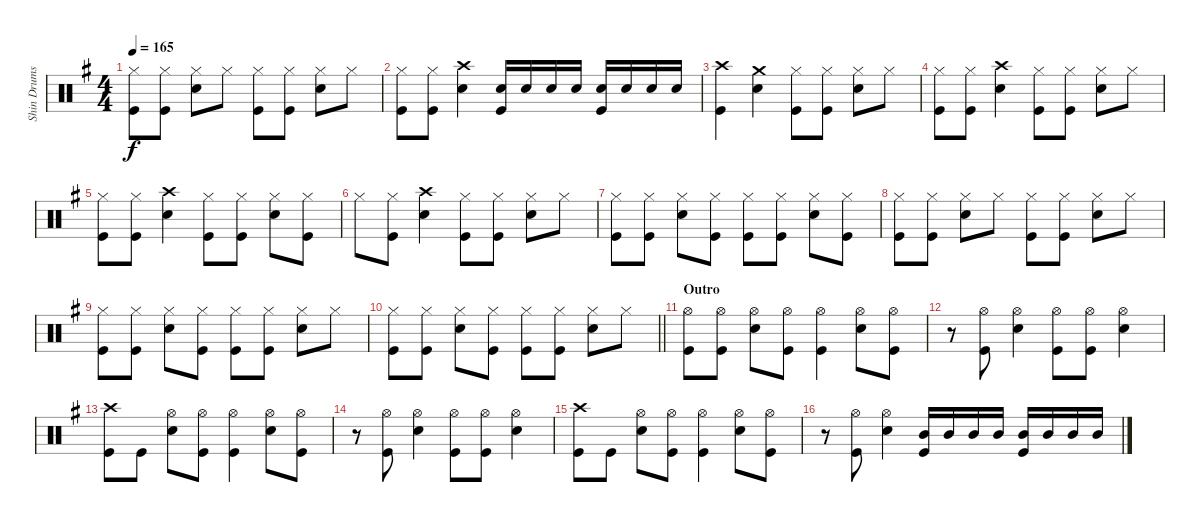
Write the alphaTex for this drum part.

\track ("Shin Drums" "Shin Drums") {instrument percussion}
\staff {score}
\articulation defaults
\ts (4 4)
\tempo 165
\clef neutral
\ks g
("Hi-Hat (closed)" "Kick (hit)").8{dy f} ("Hi-Hat (closed)" "Kick (hit)").8 ("Hi-Hat (closed)" "Snare (hit) 2").8 "Hi-Hat (closed)".8 ("Hi-Hat (closed)" "Kick (hit)").8 ("Hi-Hat (closed)" "Kick (hit)").8 ("Hi-Hat (closed)" "Snare (hit) 2").8 "Hi-Hat (closed)".8 |
("Hi-Hat (closed)" "Kick (hit)").8 ("Hi-Hat (closed)" "Kick (hit)").8 ("Crash high (hit)" "Snare (hit) 2").4 ("Snare (hit) 2" "Kick (hit)").16 "Snare (hit) 2".16 "Snare (hit) 2".16 "Snare (hit) 2".16 ("Snare (hit) 2" "Kick (hit)").16 "Snare (hit) 2".16 "Snare (hit) 2".16 "Snare (hit) 2".16 |
("Crash high (hit)" "Kick (hit)").4 ("Crash medium (hit)" "Snare (hit) 2").4 ("Hi-Hat (closed)" "Kick (hit)").8 ("Hi-Hat (closed)" "Kick (hit)").8 ("Hi-Hat (closed)" "Snare (hit) 2").8 "Hi-Hat (closed)".8 |
("Hi-Hat (closed)" "Kick (hit)").8 ("Hi-Hat (closed)" "Kick (hit)").8 ("Crash high (hit)" "Snare (hit) 2").4 ("Hi-Hat (closed)" "Kick (hit)").8 ("Hi-Hat (closed)" "Kick (hit)").8 ("Hi-Hat (closed)" "Snare (hit) 2").8 "Hi-Hat (closed)".8 |
("Hi-Hat (closed)" "Kick (hit)").8 ("Hi-Hat (closed)" "Kick (hit)").8 ("Crash high (hit)" "Snare (hit) 2").4 ("Hi-Hat (closed)" "Kick (hit)").8 ("Hi-Hat (closed)" "Kick (hit)").8 ("Hi-Hat (closed)" "Snare (hit) 2").8 ("Hi-Hat (closed)" "Kick (hit)").8 |
"Hi-Hat (closed)".8 ("Hi-Hat (closed)" "Kick (hit)").8 ("Crash high (hit)" "Snare (hit) 2").4 ("Hi-Hat (closed)" "Kick (hit)").8 ("Hi-Hat (closed)" "Kick (hit)").8 ("Hi-Hat (closed)" "Snare (hit) 2").8 "Hi-Hat (closed)".8 |
("Hi-Hat (closed)" "Kick (hit)").8 ("Hi-Hat (closed)" "Kick (hit)").8 ("Hi-Hat (closed)" "Snare (hit) 2").8 ("Hi-Hat (closed)" "Kick (hit)").8 ("Hi-Hat (closed)" "Kick (hit)").8 ("Hi-Hat (closed)" "Kick (hit)").8 ("Hi-Hat (closed)" "Snare (hit) 2").8 ("Hi-Hat (closed)" "Kick (hit)").8 |
("Hi-Hat (closed)" "Kick (hit)").8 ("Hi-Hat (closed)" "Kick (hit)").8 ("Hi-Hat (closed)" "Snare (hit) 2").8 "Hi-Hat (closed)".8 ("Hi-Hat (closed)" "Kick (hit)").8 ("Hi-Hat (closed)" "Kick (hit)").8 ("Hi-Hat (closed)" "Snare (hit) 2").8 "Hi-Hat (closed)".8 |
("Hi-Hat (closed)" "Kick (hit)").8 ("Hi-Hat (closed)" "Kick (hit)").8 ("Hi-Hat (closed)" "Snare (hit) 2").8 ("Hi-Hat (closed)" "Kick (hit)").8 ("Hi-Hat (closed)" "Kick (hit)").8 ("Hi-Hat (closed)" "Kick (hit)").8 ("Hi-Hat (closed)" "Snare (hit) 2").8 "Hi-Hat (closed)".8 |
\barLineRight lightlight
("Hi-Hat (closed)" "Kick (hit)").8 ("Hi-Hat (closed)" "Kick (hit)").8 ("Hi-Hat (closed)" "Snare (hit) 2").8 ("Hi-Hat (closed)" "Kick (hit)").8 ("Hi-Hat (closed)" "Kick (hit)").8 ("Hi-Hat (closed)" "Kick (hit)").8 ("Hi-Hat (closed)" "Snare (hit) 2").8 "Hi-Hat (closed)".8 |
\section ("" "Outro")
("Hi-Hat (open)" "Kick (hit)").8 ("Hi-Hat (open)" "Kick (hit)").8 ("Hi-Hat (open)" "Snare (hit) 2").8 ("Hi-Hat (open)" "Kick (hit)").8 ("Hi-Hat (open)" "Kick (hit)").4 ("Hi-Hat (open)" "Snare (hit) 2").8 ("Hi-Hat (open)" "Kick (hit)").8 |
r.8 ("Hi-Hat (open)" "Kick (hit)").8 ("Hi-Hat (open)" "Snare (hit) 2").4 ("Hi-Hat (open)" "Kick (hit)").8 ("Hi-Hat (open)" "Kick (hit)").8 ("Hi-Hat (open)" "Snare (hit) 2").4 |
("Crash high (hit)" "Kick (hit)").8 "Kick (hit)".8 ("Hi-Hat (open)" "Snare (hit) 2").8 ("Hi-Hat (open)" "Kick (hit)").8 ("Hi-Hat (open)" "Kick (hit)").4 ("Hi-Hat (open)" "Snare (hit) 2").8 ("Hi-Hat (open)" "Kick (hit)").8 |
r.8 ("Hi-Hat (open)" "Kick (hit)").8 ("Hi-Hat (open)" "Snare (hit) 2").4 ("Hi-Hat (open)" "Kick (hit)").8 ("Hi-Hat (open)" "Kick (hit)").8 ("Hi-Hat (open)" "Snare (hit) 2").4 |
("Crash high (hit)" "Kick (hit)").8 "Kick (hit)".8 ("Hi-Hat (open)" "Snare (hit) 2").8 ("Hi-Hat (open)" "Kick (hit)").8 ("Hi-Hat (open)" "Kick (hit)").4 ("Hi-Hat (open)" "Snare (hit) 2").8 ("Hi-Hat (open)" "Kick (hit)").8 |
r.8 ("Hi-Hat (open)" "Kick (hit)").8 ("Hi-Hat (open)" "Snare (hit) 2").4 ("Mid Tom (hit)" "Kick (hit)").16 "Mid Tom (hit)".16 "Mid Tom (hit)".16 "Mid Tom (hit)".16 ("Mid Tom (hit)" "Kick (hit)").16 "Mid Tom (hit)".16 "Mid Tom (hit)".16 "Mid Tom (hit)".16
